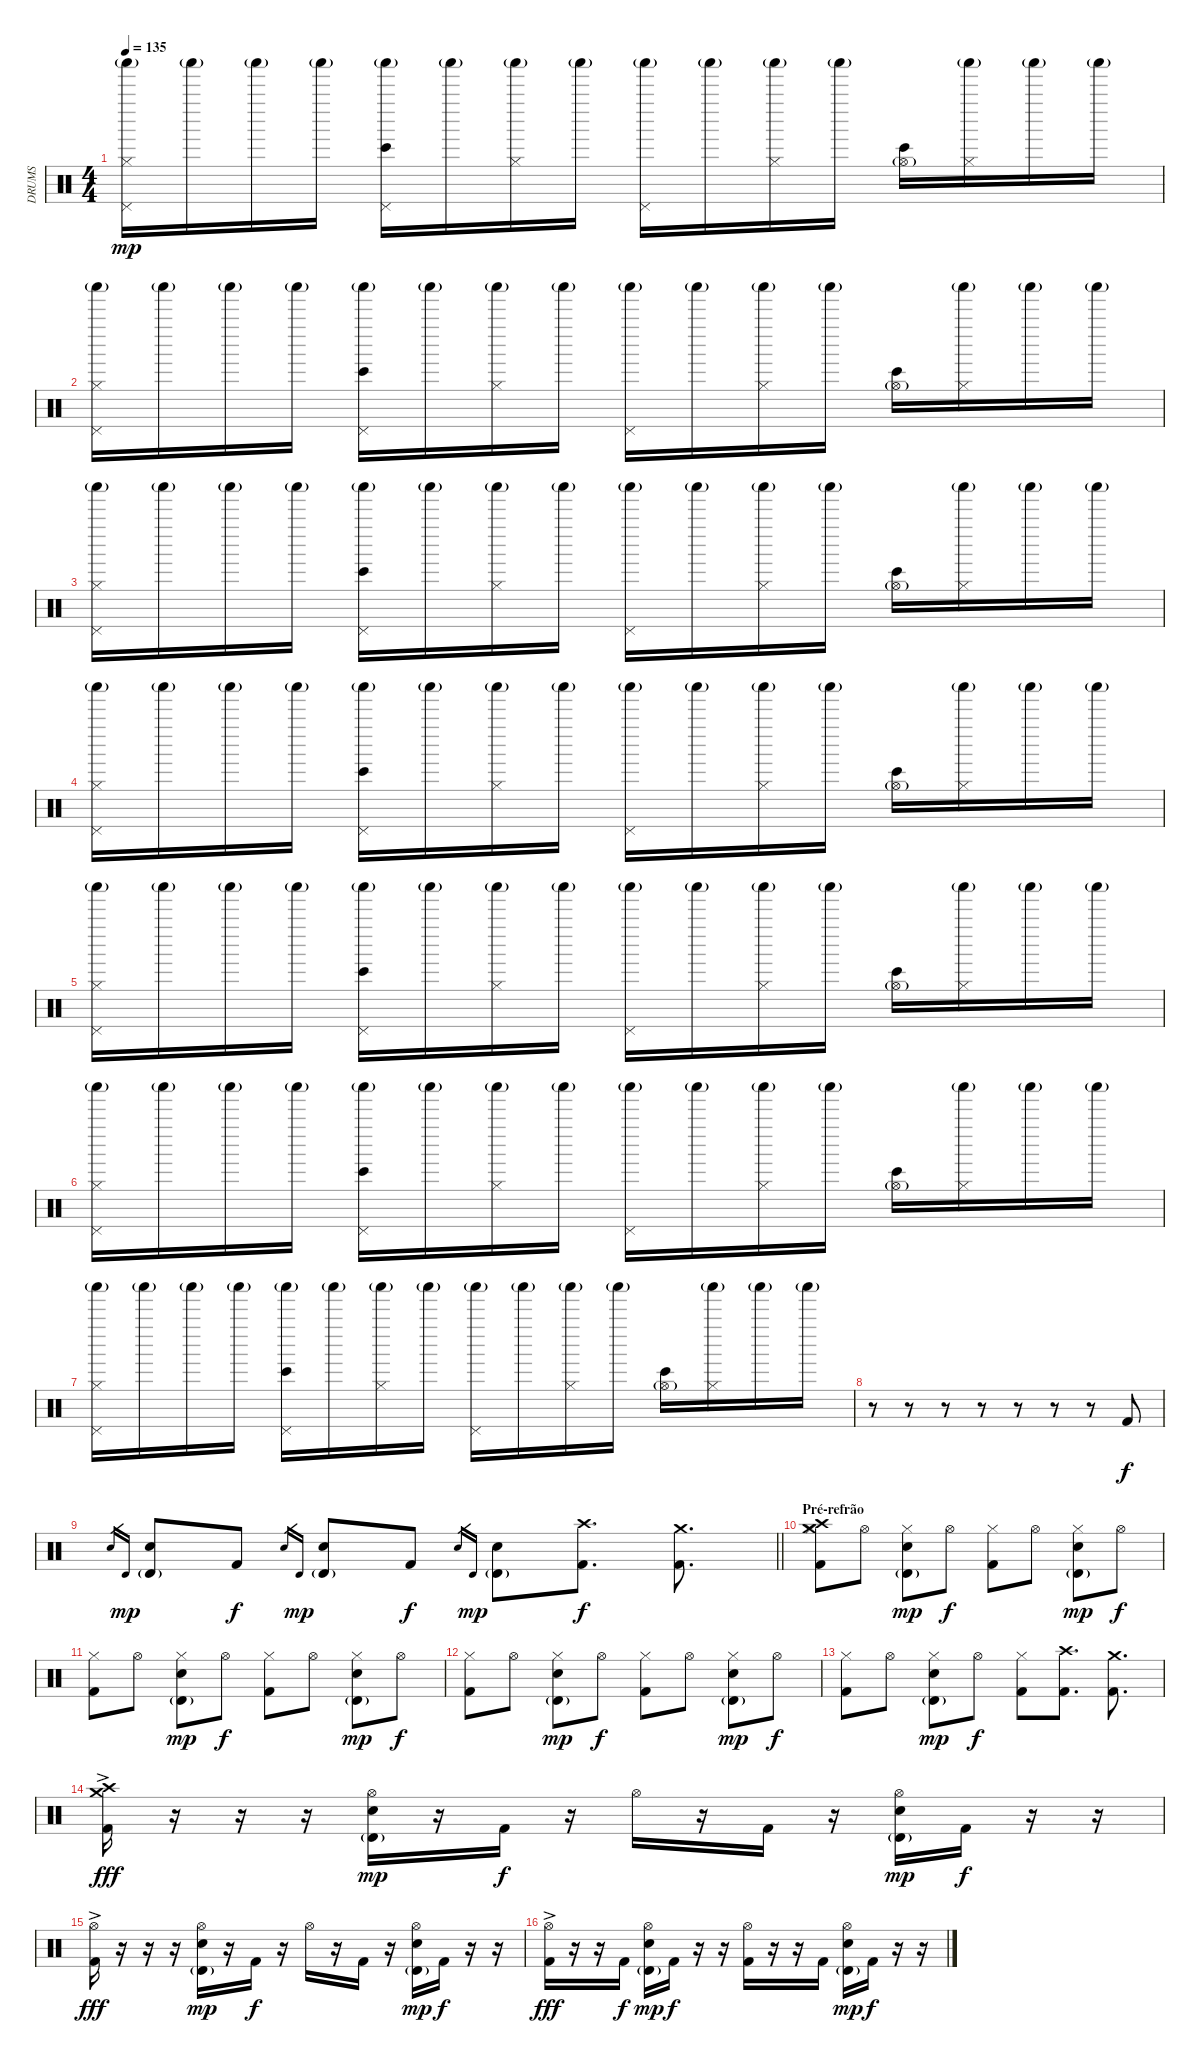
\track ("DRUMS" "DRUMS") {instrument percussion}
\staff {score}
\articulation defaults
\ts (4 4)
\tempo 135
\clef neutral
\ks c
("Shaker (hit)"{g} "Hi-Hat (closed)" "Pedal Hi-Hat (hit)").16{dy mp} "Shaker (hit)"{g}.16 "Shaker (hit)"{g}.16 "Shaker (hit)"{g}.16 ("Shaker (hit)"{g} "Bongo High (hit)" "Pedal Hi-Hat (hit)").16 "Shaker (hit)"{g}.16 ("Shaker (hit)"{g} "Hi-Hat (closed)").16 "Shaker (hit)"{g}.16 ("Shaker (hit)"{g} "Pedal Hi-Hat (hit)").16 "Shaker (hit)"{g}.16 ("Shaker (hit)"{g} "Hi-Hat (closed)").16 "Shaker (hit)"{g}.16 ("Bongo High (hit)" "Hi-Hat (open)"{g}).16 ("Shaker (hit)"{g} "Hi-Hat (closed)").16 "Shaker (hit)"{g}.16 "Shaker (hit)"{g}.16 |
("Shaker (hit)"{g} "Hi-Hat (closed)" "Pedal Hi-Hat (hit)").16 "Shaker (hit)"{g}.16 "Shaker (hit)"{g}.16 "Shaker (hit)"{g}.16 ("Shaker (hit)"{g} "Bongo High (hit)" "Pedal Hi-Hat (hit)").16 "Shaker (hit)"{g}.16 ("Shaker (hit)"{g} "Hi-Hat (closed)").16 "Shaker (hit)"{g}.16 ("Shaker (hit)"{g} "Pedal Hi-Hat (hit)").16 "Shaker (hit)"{g}.16 ("Shaker (hit)"{g} "Hi-Hat (closed)").16 "Shaker (hit)"{g}.16 ("Bongo High (hit)" "Hi-Hat (open)"{g}).16 ("Shaker (hit)"{g} "Hi-Hat (closed)").16 "Shaker (hit)"{g}.16 "Shaker (hit)"{g}.16 |
("Shaker (hit)"{g} "Hi-Hat (closed)" "Pedal Hi-Hat (hit)").16 "Shaker (hit)"{g}.16 "Shaker (hit)"{g}.16 "Shaker (hit)"{g}.16 ("Shaker (hit)"{g} "Bongo High (hit)" "Pedal Hi-Hat (hit)").16 "Shaker (hit)"{g}.16 ("Shaker (hit)"{g} "Hi-Hat (closed)").16 "Shaker (hit)"{g}.16 ("Shaker (hit)"{g} "Pedal Hi-Hat (hit)").16 "Shaker (hit)"{g}.16 ("Shaker (hit)"{g} "Hi-Hat (closed)").16 "Shaker (hit)"{g}.16 ("Bongo High (hit)" "Hi-Hat (open)"{g}).16 ("Shaker (hit)"{g} "Hi-Hat (closed)").16 "Shaker (hit)"{g}.16 "Shaker (hit)"{g}.16 |
("Shaker (hit)"{g} "Hi-Hat (closed)" "Pedal Hi-Hat (hit)").16 "Shaker (hit)"{g}.16 "Shaker (hit)"{g}.16 "Shaker (hit)"{g}.16 ("Shaker (hit)"{g} "Bongo High (hit)" "Pedal Hi-Hat (hit)").16 "Shaker (hit)"{g}.16 ("Shaker (hit)"{g} "Hi-Hat (closed)").16 "Shaker (hit)"{g}.16 ("Shaker (hit)"{g} "Pedal Hi-Hat (hit)").16 "Shaker (hit)"{g}.16 ("Shaker (hit)"{g} "Hi-Hat (closed)").16 "Shaker (hit)"{g}.16 ("Bongo High (hit)" "Hi-Hat (open)"{g}).16 ("Shaker (hit)"{g} "Hi-Hat (closed)").16 "Shaker (hit)"{g}.16 "Shaker (hit)"{g}.16 |
("Shaker (hit)"{g} "Hi-Hat (closed)" "Pedal Hi-Hat (hit)").16 "Shaker (hit)"{g}.16 "Shaker (hit)"{g}.16 "Shaker (hit)"{g}.16 ("Shaker (hit)"{g} "Bongo High (hit)" "Pedal Hi-Hat (hit)").16 "Shaker (hit)"{g}.16 ("Shaker (hit)"{g} "Hi-Hat (closed)").16 "Shaker (hit)"{g}.16 ("Shaker (hit)"{g} "Pedal Hi-Hat (hit)").16 "Shaker (hit)"{g}.16 ("Shaker (hit)"{g} "Hi-Hat (closed)").16 "Shaker (hit)"{g}.16 ("Bongo High (hit)" "Hi-Hat (open)"{g}).16 ("Shaker (hit)"{g} "Hi-Hat (closed)").16 "Shaker (hit)"{g}.16 "Shaker (hit)"{g}.16 |
("Shaker (hit)"{g} "Hi-Hat (closed)" "Pedal Hi-Hat (hit)").16 "Shaker (hit)"{g}.16 "Shaker (hit)"{g}.16 "Shaker (hit)"{g}.16 ("Shaker (hit)"{g} "Bongo High (hit)" "Pedal Hi-Hat (hit)").16 "Shaker (hit)"{g}.16 ("Shaker (hit)"{g} "Hi-Hat (closed)").16 "Shaker (hit)"{g}.16 ("Shaker (hit)"{g} "Pedal Hi-Hat (hit)").16 "Shaker (hit)"{g}.16 ("Shaker (hit)"{g} "Hi-Hat (closed)").16 "Shaker (hit)"{g}.16 ("Bongo High (hit)" "Hi-Hat (open)"{g}).16 ("Shaker (hit)"{g} "Hi-Hat (closed)").16 "Shaker (hit)"{g}.16 "Shaker (hit)"{g}.16 |
("Shaker (hit)"{g} "Hi-Hat (closed)" "Pedal Hi-Hat (hit)").16 "Shaker (hit)"{g}.16 "Shaker (hit)"{g}.16 "Shaker (hit)"{g}.16 ("Shaker (hit)"{g} "Bongo High (hit)" "Pedal Hi-Hat (hit)").16 "Shaker (hit)"{g}.16 ("Shaker (hit)"{g} "Hi-Hat (closed)").16 "Shaker (hit)"{g}.16 ("Shaker (hit)"{g} "Pedal Hi-Hat (hit)").16 "Shaker (hit)"{g}.16 ("Shaker (hit)"{g} "Hi-Hat (closed)").16 "Shaker (hit)"{g}.16 ("Bongo High (hit)" "Hi-Hat (open)"{g}).16 ("Shaker (hit)"{g} "Hi-Hat (closed)").16 "Shaker (hit)"{g}.16 "Shaker (hit)"{g}.16 |
r.8 r.8 r.8 r.8 r.8 r.8 r.8 "Kick (hit) 2".8{dy f} |
\barLineRight lightlight "Electric Snare (hit)".16{gr} "Timbale high (hit)".16{gr dy mp}
("Electric Snare (hit)" "Timbale high (hit)"{g}).8 "Kick (hit) 2".8{dy f} "Electric Snare (hit)".16{gr} "Timbale high (hit)".16{gr dy mp} ("Electric Snare (hit)" "Timbale high (hit)"{g}).8 "Kick (hit) 2".8{dy f} "Electric Snare (hit)".16{gr} "Timbale high (hit)".16{gr dy mp} ("Electric Snare (hit)" "Timbale high (hit)"{g}).8 ("Kick (hit) 2" "Crash high (hit)").8{d dy f} ("Kick (hit) 2" "Crash medium (hit)").8{d} |
\section ("" "Pré-refrão")
("Hi-Hat (closed)" "Kick (hit) 2" "Crash high (hit)" "Crash medium (hit)").8 "Hi-Hat (open)".8 ("Hi-Hat (closed)" "Electric Snare (hit)" "Timbale high (hit)"{g}).8{dy mp} "Hi-Hat (open)".8{dy f} ("Hi-Hat (closed)" "Kick (hit) 2").8 "Hi-Hat (open)".8 ("Hi-Hat (closed)" "Electric Snare (hit)" "Timbale high (hit)"{g}).8{dy mp} "Hi-Hat (open)".8{dy f} |
("Hi-Hat (closed)" "Kick (hit) 2").8 "Hi-Hat (open)".8 ("Hi-Hat (closed)" "Electric Snare (hit)" "Timbale high (hit)"{g}).8{dy mp} "Hi-Hat (open)".8{dy f} ("Hi-Hat (closed)" "Kick (hit) 2").8 "Hi-Hat (open)".8 ("Hi-Hat (closed)" "Electric Snare (hit)" "Timbale high (hit)"{g}).8{dy mp} "Hi-Hat (open)".8{dy f} |
("Hi-Hat (closed)" "Kick (hit) 2").8 "Hi-Hat (open)".8 ("Hi-Hat (closed)" "Electric Snare (hit)" "Timbale high (hit)"{g}).8{dy mp} "Hi-Hat (open)".8{dy f} ("Hi-Hat (closed)" "Kick (hit) 2").8 "Hi-Hat (open)".8 ("Hi-Hat (closed)" "Electric Snare (hit)" "Timbale high (hit)"{g}).8{dy mp} "Hi-Hat (open)".8{dy f} |
("Hi-Hat (closed)" "Kick (hit) 2").8 "Hi-Hat (open)".8 ("Hi-Hat (closed)" "Electric Snare (hit)" "Timbale high (hit)"{g}).8{dy mp} "Hi-Hat (open)".8{dy f} ("Hi-Hat (closed)" "Kick (hit) 2").8 ("Kick (hit) 2" "Crash high (hit)").8{d} ("Kick (hit) 2" "Crash medium (hit)").8{d} |
("Crash high (hit)" "Crash medium (hit)" "Kick (hit) 2"{ac}).16{dy fff} r.16 r.16 r.16 ("Hi-Hat (open)" "Electric Snare (hit)" "Timbale high (hit)"{g}).16{dy mp} r.16 "Kick (hit) 2".16{dy f} r.16 "Hi-Hat (open)".16 r.16 "Kick (hit) 2".16 r.16 ("Hi-Hat (open)" "Electric Snare (hit)" "Timbale high (hit)"{g}).16{dy mp} "Kick (hit) 2".16{dy f} r.16 r.16 |
("Hi-Hat (open)" "Kick (hit) 2"{ac}).16{dy fff} r.16 r.16 r.16 ("Hi-Hat (open)" "Electric Snare (hit)" "Timbale high (hit)"{g}).16{dy mp} r.16 "Kick (hit) 2".16{dy f} r.16 "Hi-Hat (open)".16 r.16 "Kick (hit) 2".16 r.16 ("Hi-Hat (open)" "Electric Snare (hit)" "Timbale high (hit)"{g}).16{dy mp} "Kick (hit) 2".16{dy f} r.16 r.16 |
("Hi-Hat (open)" "Kick (hit) 2"{ac}).16{dy fff} r.16 r.16 "Kick (hit) 2".16{dy f} ("Hi-Hat (open)" "Electric Snare (hit)" "Timbale high (hit)"{g}).16{dy mp} "Kick (hit) 2".16{dy f} r.16 r.16 ("Hi-Hat (open)" "Kick (hit) 2").16 r.16 r.16 "Kick (hit) 2".16 ("Hi-Hat (open)" "Electric Snare (hit)" "Timbale high (hit)"{g}).16{dy mp} "Kick (hit) 2".16{dy f} r.16 r.16
